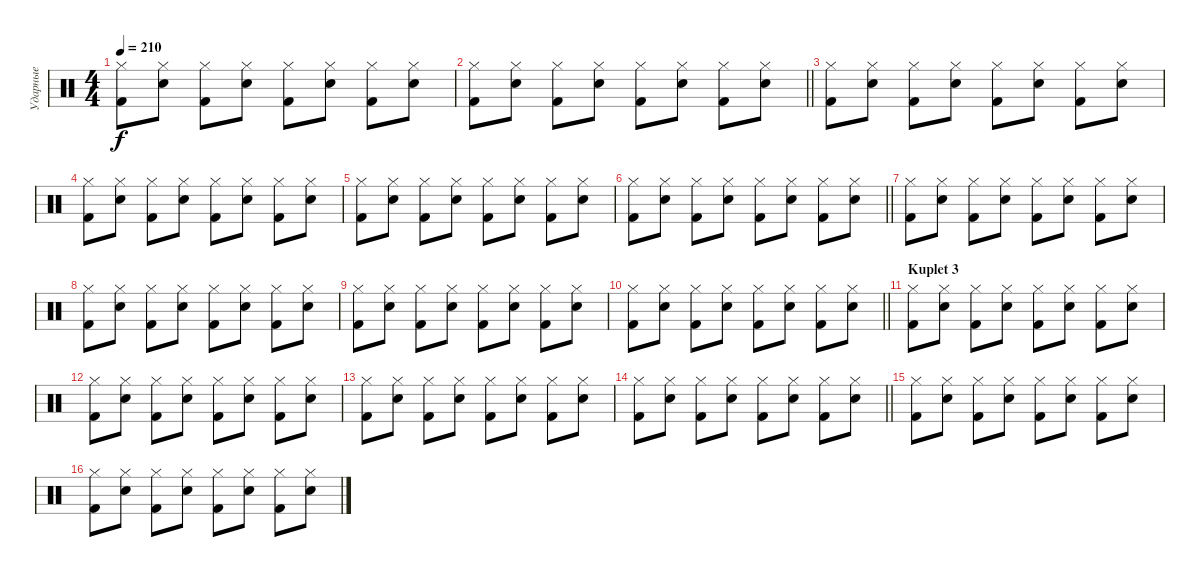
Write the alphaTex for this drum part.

\track ("Ударные" "Ударные") {instrument percussion}
\staff {score}
\articulation defaults
\ts (4 4)
\tempo 210
\clef neutral
\ks c
("Hi-Hat (closed)" "Kick (hit) 2").8{dy f} ("Hi-Hat (closed)" "Snare (hit) 2").8 ("Hi-Hat (closed)" "Kick (hit) 2").8 ("Hi-Hat (closed)" "Snare (hit) 2").8 ("Hi-Hat (closed)" "Kick (hit) 2").8 ("Hi-Hat (closed)" "Snare (hit) 2").8 ("Hi-Hat (closed)" "Kick (hit) 2").8 ("Hi-Hat (closed)" "Snare (hit) 2").8 |
\barLineRight lightlight
("Hi-Hat (closed)" "Kick (hit) 2").8 ("Hi-Hat (closed)" "Snare (hit) 2").8 ("Hi-Hat (closed)" "Kick (hit) 2").8 ("Hi-Hat (closed)" "Snare (hit) 2").8 ("Hi-Hat (closed)" "Kick (hit) 2").8 ("Hi-Hat (closed)" "Snare (hit) 2").8 ("Hi-Hat (closed)" "Kick (hit) 2").8 ("Hi-Hat (closed)" "Snare (hit) 2").8 |
("Hi-Hat (closed)" "Kick (hit) 2").8 ("Hi-Hat (closed)" "Snare (hit) 2").8 ("Hi-Hat (closed)" "Kick (hit) 2").8 ("Hi-Hat (closed)" "Snare (hit) 2").8 ("Hi-Hat (closed)" "Kick (hit) 2").8 ("Hi-Hat (closed)" "Snare (hit) 2").8 ("Hi-Hat (closed)" "Kick (hit) 2").8 ("Hi-Hat (closed)" "Snare (hit) 2").8 |
("Hi-Hat (closed)" "Kick (hit) 2").8 ("Hi-Hat (closed)" "Snare (hit) 2").8 ("Hi-Hat (closed)" "Kick (hit) 2").8 ("Hi-Hat (closed)" "Snare (hit) 2").8 ("Hi-Hat (closed)" "Kick (hit) 2").8 ("Hi-Hat (closed)" "Snare (hit) 2").8 ("Hi-Hat (closed)" "Kick (hit) 2").8 ("Hi-Hat (closed)" "Snare (hit) 2").8 |
("Hi-Hat (closed)" "Kick (hit) 2").8 ("Hi-Hat (closed)" "Snare (hit) 2").8 ("Hi-Hat (closed)" "Kick (hit) 2").8 ("Hi-Hat (closed)" "Snare (hit) 2").8 ("Hi-Hat (closed)" "Kick (hit) 2").8 ("Hi-Hat (closed)" "Snare (hit) 2").8 ("Hi-Hat (closed)" "Kick (hit) 2").8 ("Hi-Hat (closed)" "Snare (hit) 2").8 |
\barLineRight lightlight
("Hi-Hat (closed)" "Kick (hit) 2").8 ("Hi-Hat (closed)" "Snare (hit) 2").8 ("Hi-Hat (closed)" "Kick (hit) 2").8 ("Hi-Hat (closed)" "Snare (hit) 2").8 ("Hi-Hat (closed)" "Kick (hit) 2").8 ("Hi-Hat (closed)" "Snare (hit) 2").8 ("Hi-Hat (closed)" "Kick (hit) 2").8 ("Hi-Hat (closed)" "Snare (hit) 2").8 |
("Hi-Hat (closed)" "Kick (hit) 2").8 ("Hi-Hat (closed)" "Snare (hit) 2").8 ("Hi-Hat (closed)" "Kick (hit) 2").8 ("Hi-Hat (closed)" "Snare (hit) 2").8 ("Hi-Hat (closed)" "Kick (hit) 2").8 ("Hi-Hat (closed)" "Snare (hit) 2").8 ("Hi-Hat (closed)" "Kick (hit) 2").8 ("Hi-Hat (closed)" "Snare (hit) 2").8 |
("Hi-Hat (closed)" "Kick (hit) 2").8 ("Hi-Hat (closed)" "Snare (hit) 2").8 ("Hi-Hat (closed)" "Kick (hit) 2").8 ("Hi-Hat (closed)" "Snare (hit) 2").8 ("Hi-Hat (closed)" "Kick (hit) 2").8 ("Hi-Hat (closed)" "Snare (hit) 2").8 ("Hi-Hat (closed)" "Kick (hit) 2").8 ("Hi-Hat (closed)" "Snare (hit) 2").8 |
("Hi-Hat (closed)" "Kick (hit) 2").8 ("Hi-Hat (closed)" "Snare (hit) 2").8 ("Hi-Hat (closed)" "Kick (hit) 2").8 ("Hi-Hat (closed)" "Snare (hit) 2").8 ("Hi-Hat (closed)" "Kick (hit) 2").8 ("Hi-Hat (closed)" "Snare (hit) 2").8 ("Hi-Hat (closed)" "Kick (hit) 2").8 ("Hi-Hat (closed)" "Snare (hit) 2").8 |
\barLineRight lightlight
("Hi-Hat (closed)" "Kick (hit) 2").8 ("Hi-Hat (closed)" "Snare (hit) 2").8 ("Hi-Hat (closed)" "Kick (hit) 2").8 ("Hi-Hat (closed)" "Snare (hit) 2").8 ("Hi-Hat (closed)" "Kick (hit) 2").8 ("Hi-Hat (closed)" "Snare (hit) 2").8 ("Hi-Hat (closed)" "Kick (hit) 2").8 ("Hi-Hat (closed)" "Snare (hit) 2").8 |
\section ("" "Kuplet 3")
("Hi-Hat (closed)" "Kick (hit) 2").8 ("Hi-Hat (closed)" "Snare (hit) 2").8 ("Hi-Hat (closed)" "Kick (hit) 2").8 ("Hi-Hat (closed)" "Snare (hit) 2").8 ("Hi-Hat (closed)" "Kick (hit) 2").8 ("Hi-Hat (closed)" "Snare (hit) 2").8 ("Hi-Hat (closed)" "Kick (hit) 2").8 ("Hi-Hat (closed)" "Snare (hit) 2").8 |
("Hi-Hat (closed)" "Kick (hit) 2").8 ("Hi-Hat (closed)" "Snare (hit) 2").8 ("Hi-Hat (closed)" "Kick (hit) 2").8 ("Hi-Hat (closed)" "Snare (hit) 2").8 ("Hi-Hat (closed)" "Kick (hit) 2").8 ("Hi-Hat (closed)" "Snare (hit) 2").8 ("Hi-Hat (closed)" "Kick (hit) 2").8 ("Hi-Hat (closed)" "Snare (hit) 2").8 |
("Hi-Hat (closed)" "Kick (hit) 2").8 ("Hi-Hat (closed)" "Snare (hit) 2").8 ("Hi-Hat (closed)" "Kick (hit) 2").8 ("Hi-Hat (closed)" "Snare (hit) 2").8 ("Hi-Hat (closed)" "Kick (hit) 2").8 ("Hi-Hat (closed)" "Snare (hit) 2").8 ("Hi-Hat (closed)" "Kick (hit) 2").8 ("Hi-Hat (closed)" "Snare (hit) 2").8 |
\barLineRight lightlight
("Hi-Hat (closed)" "Kick (hit) 2").8 ("Hi-Hat (closed)" "Snare (hit) 2").8 ("Hi-Hat (closed)" "Kick (hit) 2").8 ("Hi-Hat (closed)" "Snare (hit) 2").8 ("Hi-Hat (closed)" "Kick (hit) 2").8 ("Hi-Hat (closed)" "Snare (hit) 2").8 ("Hi-Hat (closed)" "Kick (hit) 2").8 ("Hi-Hat (closed)" "Snare (hit) 2").8 |
("Hi-Hat (closed)" "Kick (hit) 2").8 ("Hi-Hat (closed)" "Snare (hit) 2").8 ("Hi-Hat (closed)" "Kick (hit) 2").8 ("Hi-Hat (closed)" "Snare (hit) 2").8 ("Hi-Hat (closed)" "Kick (hit) 2").8 ("Hi-Hat (closed)" "Snare (hit) 2").8 ("Hi-Hat (closed)" "Kick (hit) 2").8 ("Hi-Hat (closed)" "Snare (hit) 2").8 |
("Hi-Hat (closed)" "Kick (hit) 2").8 ("Hi-Hat (closed)" "Snare (hit) 2").8 ("Hi-Hat (closed)" "Kick (hit) 2").8 ("Hi-Hat (closed)" "Snare (hit) 2").8 ("Hi-Hat (closed)" "Kick (hit) 2").8 ("Hi-Hat (closed)" "Snare (hit) 2").8 ("Hi-Hat (closed)" "Kick (hit) 2").8 ("Hi-Hat (closed)" "Snare (hit) 2").8
